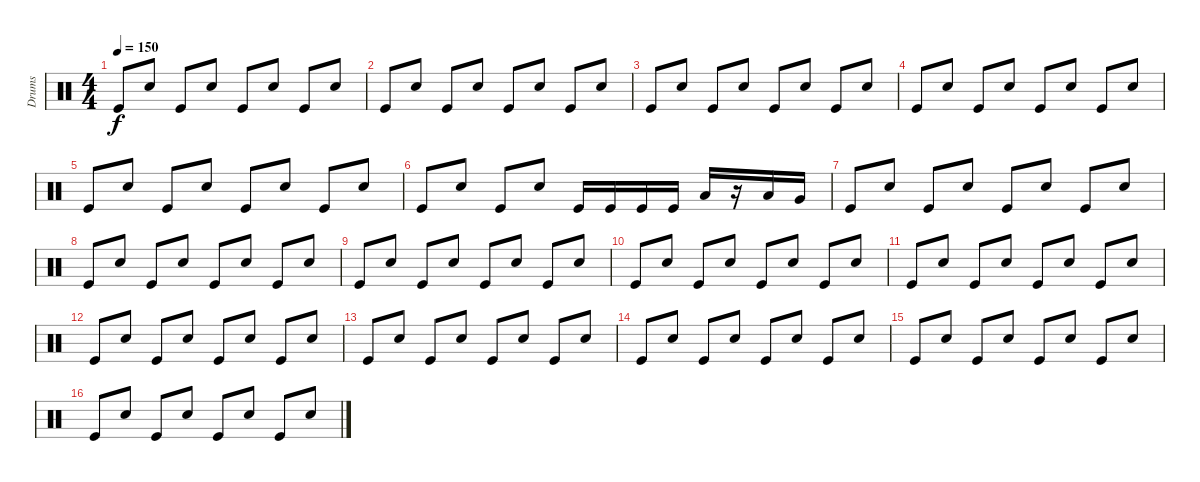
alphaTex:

\track ("Drums" "Drums") {instrument percussion}
\staff {score}
\articulation defaults
\ts (4 4)
\tempo 150
\clef neutral
\ks c "Kick (hit)".8{dy f} "Snare (hit) 2".8 "Kick (hit)".8 "Snare (hit) 2".8 "Kick (hit)".8 "Snare (hit) 2".8 "Kick (hit)".8 "Snare (hit) 2".8
|
"Kick (hit)".8 "Snare (hit) 2".8 "Kick (hit)".8 "Snare (hit) 2".8 "Kick (hit)".8 "Snare (hit) 2".8 "Kick (hit)".8 "Snare (hit) 2".8 |
"Kick (hit)".8 "Snare (hit) 2".8 "Kick (hit)".8 "Snare (hit) 2".8 "Kick (hit)".8 "Snare (hit) 2".8 "Kick (hit)".8 "Snare (hit) 2".8 |
"Kick (hit)".8 "Snare (hit) 2".8 "Kick (hit)".8 "Snare (hit) 2".8 "Kick (hit)".8 "Snare (hit) 2".8 "Kick (hit)".8 "Snare (hit) 2".8 |
"Kick (hit)".8 "Snare (hit) 2".8 "Kick (hit)".8 "Snare (hit) 2".8 "Kick (hit)".8 "Snare (hit) 2".8 "Kick (hit)".8 "Snare (hit) 2".8 |
"Kick (hit)".8 "Snare (hit) 2".8 "Kick (hit)".8 "Snare (hit) 2".8 "Kick (hit)".16 "Kick (hit)".16 "Kick (hit)".16 "Kick (hit)".16 "Low Floor Tom (hit)".16 r.16 "Low Floor Tom (hit)".16 "Very Low Tom (hit)".16 |
"Kick (hit)".8 "Snare (hit) 2".8 "Kick (hit)".8 "Snare (hit) 2".8 "Kick (hit)".8 "Snare (hit) 2".8 "Kick (hit)".8 "Snare (hit) 2".8 |
"Kick (hit)".8 "Snare (hit) 2".8 "Kick (hit)".8 "Snare (hit) 2".8 "Kick (hit)".8 "Snare (hit) 2".8 "Kick (hit)".8 "Snare (hit) 2".8 |
"Kick (hit)".8 "Snare (hit) 2".8 "Kick (hit)".8 "Snare (hit) 2".8 "Kick (hit)".8 "Snare (hit) 2".8 "Kick (hit)".8 "Snare (hit) 2".8 |
"Kick (hit)".8 "Snare (hit) 2".8 "Kick (hit)".8 "Snare (hit) 2".8 "Kick (hit)".8 "Snare (hit) 2".8 "Kick (hit)".8 "Snare (hit) 2".8 |
"Kick (hit)".8 "Snare (hit) 2".8 "Kick (hit)".8 "Snare (hit) 2".8 "Kick (hit)".8 "Snare (hit) 2".8 "Kick (hit)".8 "Snare (hit) 2".8 |
"Kick (hit)".8 "Snare (hit) 2".8 "Kick (hit)".8 "Snare (hit) 2".8 "Kick (hit)".8 "Snare (hit) 2".8 "Kick (hit)".8 "Snare (hit) 2".8 |
"Kick (hit)".8 "Snare (hit) 2".8 "Kick (hit)".8 "Snare (hit) 2".8 "Kick (hit)".8 "Snare (hit) 2".8 "Kick (hit)".8 "Snare (hit) 2".8 |
"Kick (hit)".8 "Snare (hit) 2".8 "Kick (hit)".8 "Snare (hit) 2".8 "Kick (hit)".8 "Snare (hit) 2".8 "Kick (hit)".8 "Snare (hit) 2".8 |
"Kick (hit)".8 "Snare (hit) 2".8 "Kick (hit)".8 "Snare (hit) 2".8 "Kick (hit)".8 "Snare (hit) 2".8 "Kick (hit)".8 "Snare (hit) 2".8 |
"Kick (hit)".8 "Snare (hit) 2".8 "Kick (hit)".8 "Snare (hit) 2".8 "Kick (hit)".8 "Snare (hit) 2".8 "Kick (hit)".8 "Snare (hit) 2".8
